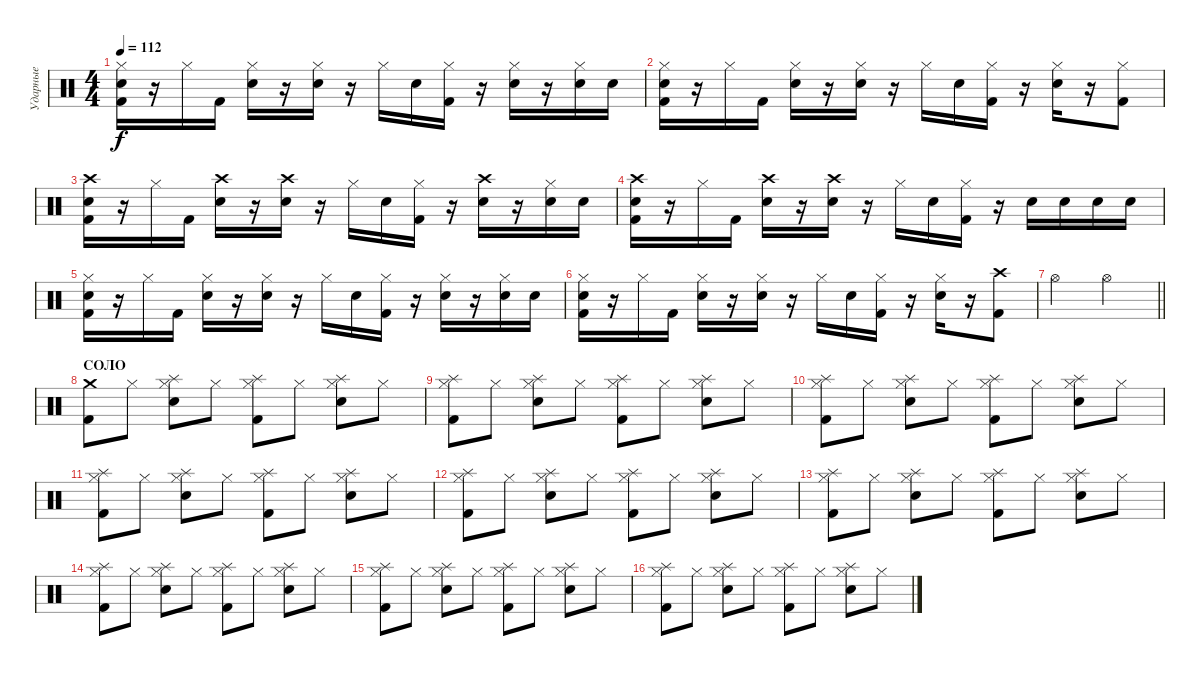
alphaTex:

\track ("Ударные" "Ударные") {instrument percussion}
\staff {score}
\articulation defaults
\ts (4 4)
\tempo 112
\clef neutral
\ks c
("Hi-Hat (closed)" "Snare (hit) 2" "Kick (hit) 2").16{dy f} r.16 "Hi-Hat (closed)".16 "Kick (hit) 2".16 ("Hi-Hat (closed)" "Snare (hit) 2").16 r.16 ("Hi-Hat (closed)" "Snare (hit) 2").16 r.16 "Hi-Hat (closed)".16 "Snare (hit) 2".16 ("Hi-Hat (closed)" "Kick (hit) 2").16 r.16 ("Hi-Hat (closed)" "Snare (hit) 2").16 r.16 ("Hi-Hat (closed)" "Snare (hit) 2").16 "Snare (hit) 2".16 |
("Hi-Hat (closed)" "Snare (hit) 2" "Kick (hit) 2").16 r.16 "Hi-Hat (closed)".16 "Kick (hit) 2".16 ("Hi-Hat (closed)" "Snare (hit) 2").16 r.16 ("Hi-Hat (closed)" "Snare (hit) 2").16 r.16 "Hi-Hat (closed)".16 "Snare (hit) 2".16 ("Hi-Hat (closed)" "Kick (hit) 2").16 r.16 ("Hi-Hat (closed)" "Snare (hit) 2").16 r.16 ("Hi-Hat (closed)" "Kick (hit) 2").8 |
("Crash high (hit)" "Snare (hit) 2" "Kick (hit) 2").16 r.16 "Hi-Hat (closed)".16 "Kick (hit) 2".16 ("Crash high (hit)" "Snare (hit) 2").16 r.16 ("Crash high (hit)" "Snare (hit) 2").16 r.16 "Hi-Hat (closed)".16 "Snare (hit) 2".16 ("Hi-Hat (closed)" "Kick (hit) 2").16 r.16 ("Crash high (hit)" "Snare (hit) 2").16 r.16 ("Hi-Hat (closed)" "Snare (hit) 2").16 "Snare (hit) 2".16 |
("Crash high (hit)" "Snare (hit) 2" "Kick (hit) 2").16 r.16 "Hi-Hat (closed)".16 "Kick (hit) 2".16 ("Crash high (hit)" "Snare (hit) 2").16 r.16 ("Crash high (hit)" "Snare (hit) 2").16 r.16 "Hi-Hat (closed)".16 "Snare (hit) 2".16 ("Hi-Hat (closed)" "Kick (hit) 2").16 r.16 "Snare (hit) 2".16 "Snare (hit) 2".16 "Snare (hit) 2".16 "Snare (hit) 2".16 |
("Hi-Hat (closed)" "Snare (hit) 2" "Kick (hit) 2").16 r.16 "Hi-Hat (closed)".16 "Kick (hit) 2".16 ("Hi-Hat (closed)" "Snare (hit) 2").16 r.16 ("Hi-Hat (closed)" "Snare (hit) 2").16 r.16 "Hi-Hat (closed)".16 "Snare (hit) 2".16 ("Hi-Hat (closed)" "Kick (hit) 2").16 r.16 ("Hi-Hat (closed)" "Snare (hit) 2").16 r.16 ("Hi-Hat (closed)" "Snare (hit) 2").16 "Snare (hit) 2".16 |
("Hi-Hat (closed)" "Snare (hit) 2" "Kick (hit) 2").16 r.16 "Hi-Hat (closed)".16 "Kick (hit) 2".16 ("Hi-Hat (closed)" "Snare (hit) 2").16 r.16 ("Hi-Hat (closed)" "Snare (hit) 2").16 r.16 "Hi-Hat (closed)".16 "Snare (hit) 2".16 ("Hi-Hat (closed)" "Kick (hit) 2").16 r.16 ("Hi-Hat (closed)" "Snare (hit) 2").16 r.16 ("Crash high (hit)" "Kick (hit) 2").8 |
\barLineRight lightlight "Hi-Hat (open)".2 "Hi-Hat (open)".2
|
\section ("" "СОЛО")
("Crash medium (hit)" "Kick (hit) 2").8 "Hi-Hat (closed)".8 ("Hi-Hat (closed)" "Splash (hit)" "Snare (hit) 2").8 "Hi-Hat (closed)".8 ("Hi-Hat (closed)" "Splash (hit)" "Kick (hit) 2").8 "Hi-Hat (closed)".8 ("Hi-Hat (closed)" "Splash (hit)" "Snare (hit) 2").8 "Hi-Hat (closed)".8 |
("Hi-Hat (closed)" "Splash (hit)" "Kick (hit) 2").8 "Hi-Hat (closed)".8 ("Hi-Hat (closed)" "Splash (hit)" "Snare (hit) 2").8 "Hi-Hat (closed)".8 ("Hi-Hat (closed)" "Splash (hit)" "Kick (hit) 2").8 "Hi-Hat (closed)".8 ("Hi-Hat (closed)" "Splash (hit)" "Snare (hit) 2").8 "Hi-Hat (closed)".8 |
("Hi-Hat (closed)" "Splash (hit)" "Kick (hit) 2").8 "Hi-Hat (closed)".8 ("Hi-Hat (closed)" "Splash (hit)" "Snare (hit) 2").8 "Hi-Hat (closed)".8 ("Hi-Hat (closed)" "Splash (hit)" "Kick (hit) 2").8 "Hi-Hat (closed)".8 ("Hi-Hat (closed)" "Splash (hit)" "Snare (hit) 2").8 "Hi-Hat (closed)".8 |
("Hi-Hat (closed)" "Splash (hit)" "Kick (hit) 2").8 "Hi-Hat (closed)".8 ("Hi-Hat (closed)" "Splash (hit)" "Snare (hit) 2").8 "Hi-Hat (closed)".8 ("Hi-Hat (closed)" "Splash (hit)" "Kick (hit) 2").8 "Hi-Hat (closed)".8 ("Hi-Hat (closed)" "Splash (hit)" "Snare (hit) 2").8 "Hi-Hat (closed)".8 |
("Hi-Hat (closed)" "Splash (hit)" "Kick (hit) 2").8 "Hi-Hat (closed)".8 ("Hi-Hat (closed)" "Splash (hit)" "Snare (hit) 2").8 "Hi-Hat (closed)".8 ("Hi-Hat (closed)" "Splash (hit)" "Kick (hit) 2").8 "Hi-Hat (closed)".8 ("Hi-Hat (closed)" "Splash (hit)" "Snare (hit) 2").8 "Hi-Hat (closed)".8 |
("Hi-Hat (closed)" "Splash (hit)" "Kick (hit) 2").8 "Hi-Hat (closed)".8 ("Hi-Hat (closed)" "Splash (hit)" "Snare (hit) 2").8 "Hi-Hat (closed)".8 ("Hi-Hat (closed)" "Splash (hit)" "Kick (hit) 2").8 "Hi-Hat (closed)".8 ("Hi-Hat (closed)" "Splash (hit)" "Snare (hit) 2").8 "Hi-Hat (closed)".8 |
("Hi-Hat (closed)" "Splash (hit)" "Kick (hit) 2").8 "Hi-Hat (closed)".8 ("Hi-Hat (closed)" "Splash (hit)" "Snare (hit) 2").8 "Hi-Hat (closed)".8 ("Hi-Hat (closed)" "Splash (hit)" "Kick (hit) 2").8 "Hi-Hat (closed)".8 ("Hi-Hat (closed)" "Splash (hit)" "Snare (hit) 2").8 "Hi-Hat (closed)".8 |
("Hi-Hat (closed)" "Splash (hit)" "Kick (hit) 2").8 "Hi-Hat (closed)".8 ("Hi-Hat (closed)" "Splash (hit)" "Snare (hit) 2").8 "Hi-Hat (closed)".8 ("Hi-Hat (closed)" "Splash (hit)" "Kick (hit) 2").8 "Hi-Hat (closed)".8 ("Hi-Hat (closed)" "Splash (hit)" "Snare (hit) 2").8 "Hi-Hat (closed)".8 |
("Hi-Hat (closed)" "Splash (hit)" "Kick (hit) 2").8 "Hi-Hat (closed)".8 ("Hi-Hat (closed)" "Splash (hit)" "Snare (hit) 2").8 "Hi-Hat (closed)".8 ("Hi-Hat (closed)" "Splash (hit)" "Kick (hit) 2").8 "Hi-Hat (closed)".8 ("Hi-Hat (closed)" "Splash (hit)" "Snare (hit) 2").8 "Hi-Hat (closed)".8
